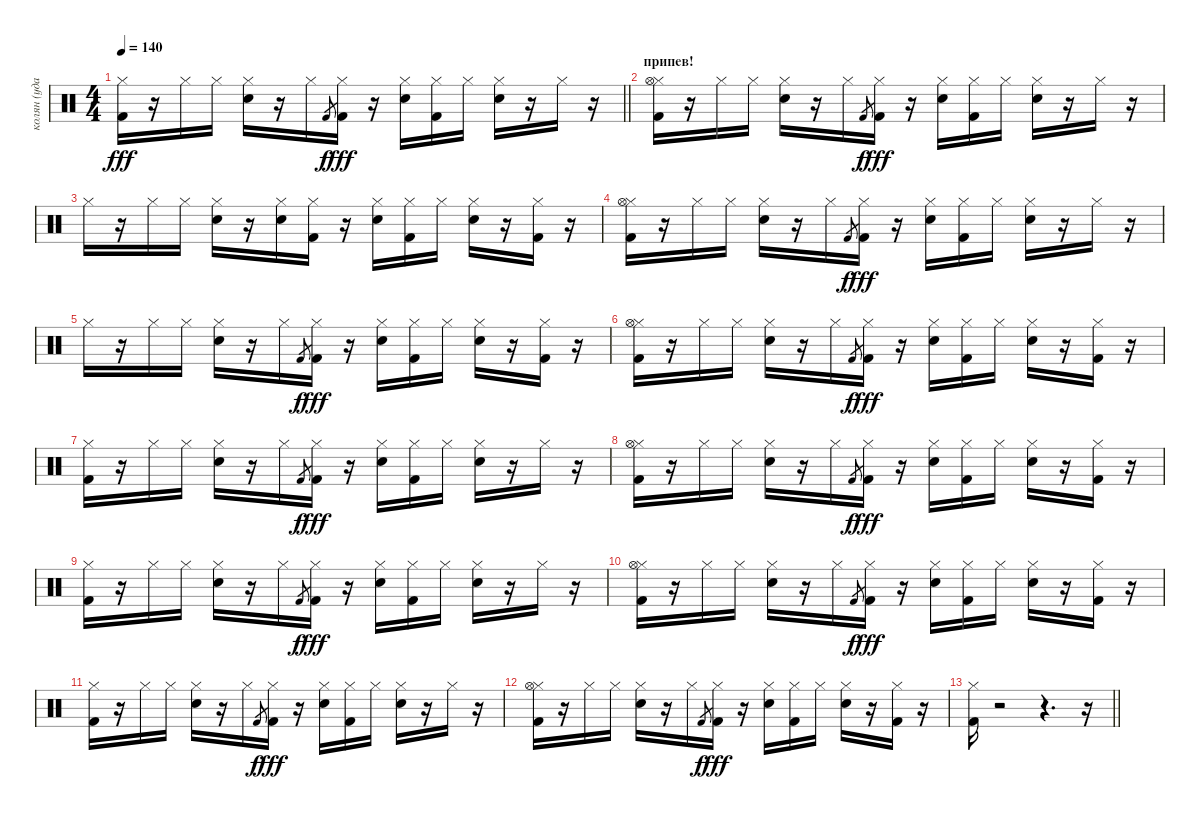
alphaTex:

\track ("колян (ударные)" "колян (уда") {instrument percussion}
\staff {score}
\articulation defaults
\ts (4 4)
\tempo 140
\clef neutral
\barLineRight lightlight
\ks c
("Hi-Hat (closed)" "Kick (hit) 2").16{dy fff} r.16 "Hi-Hat (closed)".16 "Hi-Hat (closed)".16 ("Hi-Hat (closed)" "Electric Snare (hit)").16 r.16 "Hi-Hat (closed)".16 "Kick (hit) 2".8{gr dy f} ("Hi-Hat (closed)" "Kick (hit) 2").16{dy fff} r.16 ("Hi-Hat (closed)" "Electric Snare (hit)").16 ("Hi-Hat (closed)" "Kick (hit) 2").16 "Hi-Hat (closed)".16 ("Hi-Hat (closed)" "Electric Snare (hit)").16 r.16 "Hi-Hat (closed)".16 r.16 |
\section ("" "припев!")
("Hi-Hat (closed)" "Hi-Hat (open)" "Kick (hit) 2").16 r.16 "Hi-Hat (closed)".16 "Hi-Hat (closed)".16 ("Hi-Hat (closed)" "Electric Snare (hit)").16 r.16 "Hi-Hat (closed)".16 "Kick (hit) 2".8{gr dy f} ("Hi-Hat (closed)" "Kick (hit) 2").16{dy fff} r.16 ("Hi-Hat (closed)" "Electric Snare (hit)").16 ("Hi-Hat (closed)" "Kick (hit) 2").16 "Hi-Hat (closed)".16 ("Hi-Hat (closed)" "Electric Snare (hit)").16 r.16 "Hi-Hat (closed)".16 r.16 |
"Hi-Hat (closed)".16 r.16 "Hi-Hat (closed)".16 "Hi-Hat (closed)".16 ("Hi-Hat (closed)" "Electric Snare (hit)").16 r.16 ("Hi-Hat (closed)" "Electric Snare (hit)").16 ("Hi-Hat (closed)" "Kick (hit) 2").16 r.16 ("Hi-Hat (closed)" "Electric Snare (hit)").16 ("Hi-Hat (closed)" "Kick (hit) 2").16 "Hi-Hat (closed)".16 ("Hi-Hat (closed)" "Electric Snare (hit)").16 r.16 ("Hi-Hat (closed)" "Kick (hit) 2").16 r.16 |
("Hi-Hat (closed)" "Hi-Hat (open)" "Kick (hit) 2").16 r.16 "Hi-Hat (closed)".16 "Hi-Hat (closed)".16 ("Hi-Hat (closed)" "Electric Snare (hit)").16 r.16 "Hi-Hat (closed)".16 "Kick (hit) 2".8{gr dy f} ("Hi-Hat (closed)" "Kick (hit) 2").16{dy fff} r.16 ("Hi-Hat (closed)" "Electric Snare (hit)").16 ("Hi-Hat (closed)" "Kick (hit) 2").16 "Hi-Hat (closed)".16 ("Hi-Hat (closed)" "Electric Snare (hit)").16 r.16 "Hi-Hat (closed)".16 r.16 |
"Hi-Hat (closed)".16 r.16 "Hi-Hat (closed)".16 "Hi-Hat (closed)".16 ("Hi-Hat (closed)" "Electric Snare (hit)").16 r.16 "Hi-Hat (closed)".16 "Kick (hit) 2".8{gr dy f} ("Hi-Hat (closed)" "Kick (hit) 2").16{dy fff} r.16 ("Hi-Hat (closed)" "Electric Snare (hit)").16 ("Hi-Hat (closed)" "Kick (hit) 2").16 "Hi-Hat (closed)".16 ("Hi-Hat (closed)" "Electric Snare (hit)").16 r.16 ("Hi-Hat (closed)" "Kick (hit) 2").16 r.16 |
("Hi-Hat (closed)" "Hi-Hat (open)" "Kick (hit) 2").16 r.16 "Hi-Hat (closed)".16 "Hi-Hat (closed)".16 ("Hi-Hat (closed)" "Electric Snare (hit)").16 r.16 "Hi-Hat (closed)".16 "Kick (hit) 2".8{gr dy f} ("Hi-Hat (closed)" "Kick (hit) 2").16{dy fff} r.16 ("Hi-Hat (closed)" "Electric Snare (hit)").16 ("Hi-Hat (closed)" "Kick (hit) 2").16 "Hi-Hat (closed)".16 ("Hi-Hat (closed)" "Electric Snare (hit)").16 r.16 ("Hi-Hat (closed)" "Kick (hit) 2").16 r.16 |
("Hi-Hat (closed)" "Kick (hit) 2").16 r.16 "Hi-Hat (closed)".16 "Hi-Hat (closed)".16 ("Hi-Hat (closed)" "Electric Snare (hit)").16 r.16 "Hi-Hat (closed)".16 "Kick (hit) 2".8{gr dy f} ("Hi-Hat (closed)" "Kick (hit) 2").16{dy fff} r.16 ("Hi-Hat (closed)" "Electric Snare (hit)").16 ("Hi-Hat (closed)" "Kick (hit) 2").16 "Hi-Hat (closed)".16 ("Hi-Hat (closed)" "Electric Snare (hit)").16 r.16 "Hi-Hat (closed)".16 r.16 |
("Hi-Hat (closed)" "Hi-Hat (open)" "Kick (hit) 2").16 r.16 "Hi-Hat (closed)".16 "Hi-Hat (closed)".16 ("Hi-Hat (closed)" "Electric Snare (hit)").16 r.16 "Hi-Hat (closed)".16 "Kick (hit) 2".8{gr dy f} ("Hi-Hat (closed)" "Kick (hit) 2").16{dy fff} r.16 ("Hi-Hat (closed)" "Electric Snare (hit)").16 ("Hi-Hat (closed)" "Kick (hit) 2").16 "Hi-Hat (closed)".16 ("Hi-Hat (closed)" "Electric Snare (hit)").16 r.16 ("Hi-Hat (closed)" "Kick (hit) 2").16 r.16 |
("Hi-Hat (closed)" "Kick (hit) 2").16 r.16 "Hi-Hat (closed)".16 "Hi-Hat (closed)".16 ("Hi-Hat (closed)" "Electric Snare (hit)").16 r.16 "Hi-Hat (closed)".16 "Kick (hit) 2".8{gr dy f} ("Hi-Hat (closed)" "Kick (hit) 2").16{dy fff} r.16 ("Hi-Hat (closed)" "Electric Snare (hit)").16 ("Hi-Hat (closed)" "Kick (hit) 2").16 "Hi-Hat (closed)".16 ("Hi-Hat (closed)" "Electric Snare (hit)").16 r.16 "Hi-Hat (closed)".16 r.16 |
("Hi-Hat (closed)" "Hi-Hat (open)" "Kick (hit) 2").16 r.16 "Hi-Hat (closed)".16 "Hi-Hat (closed)".16 ("Hi-Hat (closed)" "Electric Snare (hit)").16 r.16 "Hi-Hat (closed)".16 "Kick (hit) 2".8{gr dy f} ("Hi-Hat (closed)" "Kick (hit) 2").16{dy fff} r.16 ("Hi-Hat (closed)" "Electric Snare (hit)").16 ("Hi-Hat (closed)" "Kick (hit) 2").16 "Hi-Hat (closed)".16 ("Hi-Hat (closed)" "Electric Snare (hit)").16 r.16 ("Hi-Hat (closed)" "Kick (hit) 2").16 r.16 |
("Hi-Hat (closed)" "Kick (hit) 2").16 r.16 "Hi-Hat (closed)".16 "Hi-Hat (closed)".16 ("Hi-Hat (closed)" "Electric Snare (hit)").16 r.16 "Hi-Hat (closed)".16 "Kick (hit) 2".8{gr dy f} ("Hi-Hat (closed)" "Kick (hit) 2").16{dy fff} r.16 ("Hi-Hat (closed)" "Electric Snare (hit)").16 ("Hi-Hat (closed)" "Kick (hit) 2").16 "Hi-Hat (closed)".16 ("Hi-Hat (closed)" "Electric Snare (hit)").16 r.16 "Hi-Hat (closed)".16 r.16 |
("Hi-Hat (closed)" "Hi-Hat (open)" "Kick (hit) 2").16 r.16 "Hi-Hat (closed)".16 "Hi-Hat (closed)".16 ("Hi-Hat (closed)" "Electric Snare (hit)").16 r.16 "Hi-Hat (closed)".16 "Kick (hit) 2".8{gr dy f} ("Hi-Hat (closed)" "Kick (hit) 2").16{dy fff} r.16 ("Hi-Hat (closed)" "Electric Snare (hit)").16 ("Hi-Hat (closed)" "Kick (hit) 2").16 "Hi-Hat (closed)".16 ("Hi-Hat (closed)" "Electric Snare (hit)").16 r.16 ("Hi-Hat (closed)" "Kick (hit) 2").16 r.16 |
\barLineRight lightlight
("Hi-Hat (closed)" "Kick (hit) 2").16 r.2 r.4{d} r.16
